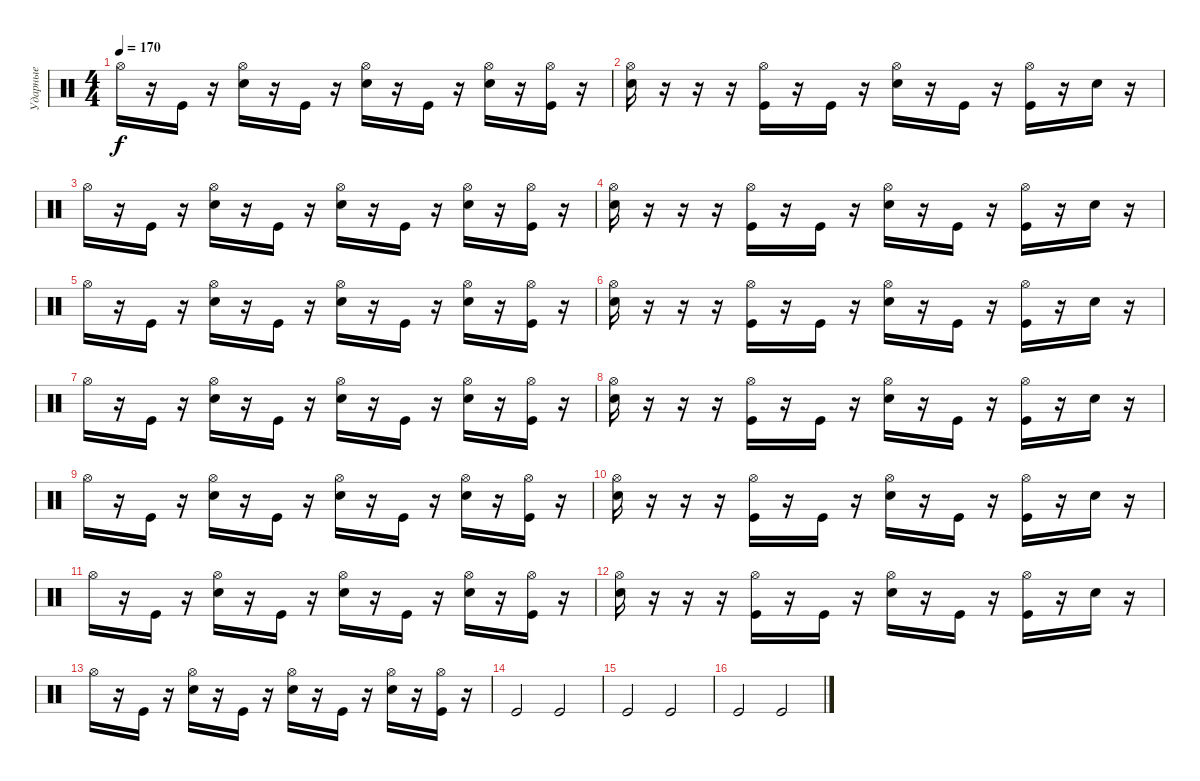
\track ("Ударные" "Ударные") {instrument percussion}
\staff {score}
\articulation defaults
\ts (4 4)
\tempo 170
\clef neutral
\ks c "Hi-Hat (open)".16{dy f}
r.16 "Kick (hit)".16 r.16 ("Hi-Hat (open)" "Electric Snare (hit)").16 r.16 "Kick (hit)".16 r.16 ("Hi-Hat (open)" "Electric Snare (hit)").16 r.16 "Kick (hit)".16 r.16 ("Hi-Hat (open)" "Electric Snare (hit)").16 r.16 ("Hi-Hat (open)" "Kick (hit)").16 r.16 |
("Hi-Hat (open)" "Electric Snare (hit)").16 r.16 r.16 r.16 ("Hi-Hat (open)" "Kick (hit)").16 r.16 "Kick (hit)".16 r.16 ("Hi-Hat (open)" "Electric Snare (hit)").16 r.16 "Kick (hit)".16 r.16 ("Hi-Hat (open)" "Kick (hit)").16 r.16 "Electric Snare (hit)".16 r.16 |
"Hi-Hat (open)".16 r.16 "Kick (hit)".16 r.16 ("Hi-Hat (open)" "Electric Snare (hit)").16 r.16 "Kick (hit)".16 r.16 ("Hi-Hat (open)" "Electric Snare (hit)").16 r.16 "Kick (hit)".16 r.16 ("Hi-Hat (open)" "Electric Snare (hit)").16 r.16 ("Hi-Hat (open)" "Kick (hit)").16 r.16 |
("Hi-Hat (open)" "Electric Snare (hit)").16 r.16 r.16 r.16 ("Hi-Hat (open)" "Kick (hit)").16 r.16 "Kick (hit)".16 r.16 ("Hi-Hat (open)" "Electric Snare (hit)").16 r.16 "Kick (hit)".16 r.16 ("Hi-Hat (open)" "Kick (hit)").16 r.16 "Electric Snare (hit)".16 r.16 |
"Hi-Hat (open)".16 r.16 "Kick (hit)".16 r.16 ("Hi-Hat (open)" "Electric Snare (hit)").16 r.16 "Kick (hit)".16 r.16 ("Hi-Hat (open)" "Electric Snare (hit)").16 r.16 "Kick (hit)".16 r.16 ("Hi-Hat (open)" "Electric Snare (hit)").16 r.16 ("Hi-Hat (open)" "Kick (hit)").16 r.16 |
("Hi-Hat (open)" "Electric Snare (hit)").16 r.16 r.16 r.16 ("Hi-Hat (open)" "Kick (hit)").16 r.16 "Kick (hit)".16 r.16 ("Hi-Hat (open)" "Electric Snare (hit)").16 r.16 "Kick (hit)".16 r.16 ("Hi-Hat (open)" "Kick (hit)").16 r.16 "Electric Snare (hit)".16 r.16 |
"Hi-Hat (open)".16 r.16 "Kick (hit)".16 r.16 ("Hi-Hat (open)" "Electric Snare (hit)").16 r.16 "Kick (hit)".16 r.16 ("Hi-Hat (open)" "Electric Snare (hit)").16 r.16 "Kick (hit)".16 r.16 ("Hi-Hat (open)" "Electric Snare (hit)").16 r.16 ("Hi-Hat (open)" "Kick (hit)").16 r.16 |
("Hi-Hat (open)" "Electric Snare (hit)").16 r.16 r.16 r.16 ("Hi-Hat (open)" "Kick (hit)").16 r.16 "Kick (hit)".16 r.16 ("Hi-Hat (open)" "Electric Snare (hit)").16 r.16 "Kick (hit)".16 r.16 ("Hi-Hat (open)" "Kick (hit)").16 r.16 "Electric Snare (hit)".16 r.16 |
"Hi-Hat (open)".16 r.16 "Kick (hit)".16 r.16 ("Hi-Hat (open)" "Electric Snare (hit)").16 r.16 "Kick (hit)".16 r.16 ("Hi-Hat (open)" "Electric Snare (hit)").16 r.16 "Kick (hit)".16 r.16 ("Hi-Hat (open)" "Electric Snare (hit)").16 r.16 ("Hi-Hat (open)" "Kick (hit)").16 r.16 |
("Hi-Hat (open)" "Electric Snare (hit)").16 r.16 r.16 r.16 ("Hi-Hat (open)" "Kick (hit)").16 r.16 "Kick (hit)".16 r.16 ("Hi-Hat (open)" "Electric Snare (hit)").16 r.16 "Kick (hit)".16 r.16 ("Hi-Hat (open)" "Kick (hit)").16 r.16 "Electric Snare (hit)".16 r.16 |
"Hi-Hat (open)".16 r.16 "Kick (hit)".16 r.16 ("Hi-Hat (open)" "Electric Snare (hit)").16 r.16 "Kick (hit)".16 r.16 ("Hi-Hat (open)" "Electric Snare (hit)").16 r.16 "Kick (hit)".16 r.16 ("Hi-Hat (open)" "Electric Snare (hit)").16 r.16 ("Hi-Hat (open)" "Kick (hit)").16 r.16 |
("Hi-Hat (open)" "Electric Snare (hit)").16 r.16 r.16 r.16 ("Hi-Hat (open)" "Kick (hit)").16 r.16 "Kick (hit)".16 r.16 ("Hi-Hat (open)" "Electric Snare (hit)").16 r.16 "Kick (hit)".16 r.16 ("Hi-Hat (open)" "Kick (hit)").16 r.16 "Electric Snare (hit)".16 r.16 |
"Hi-Hat (open)".16 r.16 "Kick (hit)".16 r.16 ("Hi-Hat (open)" "Electric Snare (hit)").16 r.16 "Kick (hit)".16 r.16 ("Hi-Hat (open)" "Electric Snare (hit)").16 r.16 "Kick (hit)".16 r.16 ("Hi-Hat (open)" "Electric Snare (hit)").16 r.16 ("Hi-Hat (open)" "Kick (hit)").16 r.16 |
"Kick (hit)".2 "Kick (hit)".2 |
"Kick (hit)".2 "Kick (hit)".2 |
"Kick (hit)".2 "Kick (hit)".2
